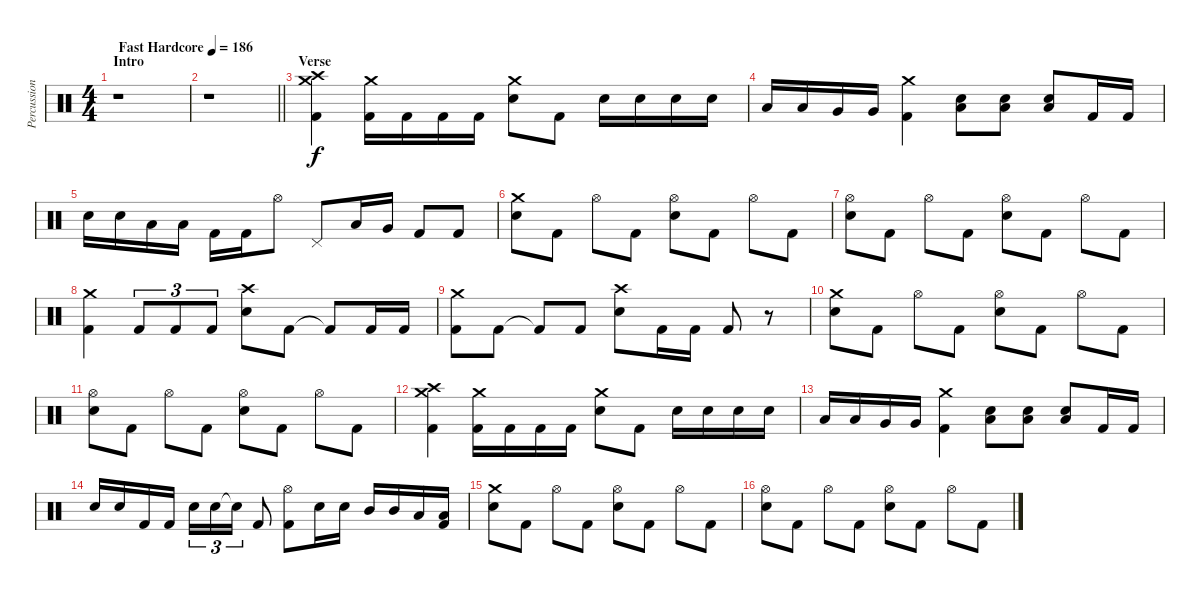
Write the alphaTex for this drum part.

\track ("Percussion" "Percussion") {instrument percussion}
\staff {score}
\articulation defaults
\ts (4 4)
\section ("" "Intro")
\tempo (186 "Fast Hardcore")
\clef neutral
\ks c
r.1{dy f} |
\barLineRight lightlight
r.1 |
\section ("" "Verse")
("Crash medium (hit)" "Crash high (hit)" "Kick (hit) 2").4 ("Crash medium (hit)" "Kick (hit) 2").16 "Kick (hit) 2".16 "Kick (hit) 2".16 "Kick (hit) 2".16 ("Crash medium (hit)" "Electric Snare (hit)").8 "Kick (hit) 2".8 "Electric Snare (hit)".16 "Electric Snare (hit)".16 "Electric Snare (hit)".16 "Electric Snare (hit)".16 |
"Low Tom (hit)".16 "Low Tom (hit)".16 "Very Low Tom (hit)".16 "Very Low Tom (hit)".16 ("Crash medium (hit)" "Kick (hit) 2").4 ("Low Tom (hit)" "Electric Snare (hit)").8 ("Low Tom (hit)" "Electric Snare (hit)").8 ("Low Tom (hit)" "Electric Snare (hit)").8 "Kick (hit) 2".16 "Kick (hit) 2".16 |
"Electric Snare (hit)".16 "Electric Snare (hit)".16 "Low Tom (hit)".16 "Low Tom (hit)".16 "Kick (hit) 2".16 "Kick (hit) 2".16 "Hi-Hat (open)".8 "Pedal Hi-Hat (hit)".8 "Low Tom (hit)".16 "Very Low Tom (hit)".16 "Kick (hit) 2".8 "Kick (hit) 2".8 |
("Crash medium (hit)" "Electric Snare (hit)").8 "Kick (hit) 2".8 "Hi-Hat (open)".8 "Kick (hit) 2".8 ("Hi-Hat (open)" "Electric Snare (hit)").8 "Kick (hit) 2".8 "Hi-Hat (open)".8 "Kick (hit) 2".8 |
("Hi-Hat (open)" "Electric Snare (hit)").8 "Kick (hit) 2".8 "Hi-Hat (open)".8 "Kick (hit) 2".8 ("Hi-Hat (open)" "Electric Snare (hit)").8 "Kick (hit) 2".8 "Hi-Hat (open)".8 "Kick (hit) 2".8 |
("Crash medium (hit)" "Kick (hit) 2").4 "Kick (hit) 2".8{tu (3 2)} "Kick (hit) 2".8{tu (3 2)} "Kick (hit) 2".8{tu (3 2)} ("Crash high (hit)" "Electric Snare (hit)").8 "Kick (hit) 2".8 "Kick (hit) 2"{t}.8 "Kick (hit) 2".16 "Kick (hit) 2".16 |
("Crash medium (hit)" "Kick (hit) 2").8 "Kick (hit) 2".8 "Kick (hit) 2"{t}.8 "Kick (hit) 2".8 ("Crash high (hit)" "Electric Snare (hit)").8 "Kick (hit) 2".16 "Kick (hit) 2".16 "Kick (hit) 2".8 r.8 |
("Crash medium (hit)" "Electric Snare (hit)").8 "Kick (hit) 2".8 "Hi-Hat (open)".8 "Kick (hit) 2".8 ("Hi-Hat (open)" "Electric Snare (hit)").8 "Kick (hit) 2".8 "Hi-Hat (open)".8 "Kick (hit) 2".8 |
("Hi-Hat (open)" "Electric Snare (hit)").8 "Kick (hit) 2".8 "Hi-Hat (open)".8 "Kick (hit) 2".8 ("Hi-Hat (open)" "Electric Snare (hit)").8 "Kick (hit) 2".8 "Hi-Hat (open)".8 "Kick (hit) 2".8 |
("Crash medium (hit)" "Crash high (hit)" "Kick (hit) 2").4 ("Crash medium (hit)" "Kick (hit) 2").16 "Kick (hit) 2".16 "Kick (hit) 2".16 "Kick (hit) 2".16 ("Crash medium (hit)" "Electric Snare (hit)").8 "Kick (hit) 2".8 "Electric Snare (hit)".16 "Electric Snare (hit)".16 "Electric Snare (hit)".16 "Electric Snare (hit)".16 |
"Low Tom (hit)".16 "Low Tom (hit)".16 "Very Low Tom (hit)".16 "Very Low Tom (hit)".16 ("Crash medium (hit)" "Kick (hit) 2").4 ("Low Tom (hit)" "Electric Snare (hit)").8 ("Low Tom (hit)" "Electric Snare (hit)").8 ("Low Tom (hit)" "Electric Snare (hit)").8 "Kick (hit) 2".16 "Kick (hit) 2".16 |
"Electric Snare (hit)".16 "Electric Snare (hit)".16 "Kick (hit) 2".16 "Kick (hit) 2".16 "Electric Snare (hit)".16{tu (3 2)} "Electric Snare (hit)".16{tu (3 2)} "Electric Snare (hit)"{t}.16{tu (3 2)} "Kick (hit) 2".8 ("Hi-Hat (open)" "Kick (hit) 2").8 "Electric Snare (hit)".16 "Electric Snare (hit)".16 "Mid Tom (hit)".16 "Mid Tom (hit)".16 "Low Tom (hit)".16 ("Low Tom (hit)" "Kick (hit) 2").16 |
("Crash medium (hit)" "Electric Snare (hit)").8 "Kick (hit) 2".8 "Hi-Hat (open)".8 "Kick (hit) 2".8 ("Hi-Hat (open)" "Electric Snare (hit)").8 "Kick (hit) 2".8 "Hi-Hat (open)".8 "Kick (hit) 2".8 |
("Hi-Hat (open)" "Electric Snare (hit)").8 "Kick (hit) 2".8 "Hi-Hat (open)".8 "Kick (hit) 2".8 ("Hi-Hat (open)" "Electric Snare (hit)").8 "Kick (hit) 2".8 "Hi-Hat (open)".8 "Kick (hit) 2".8
